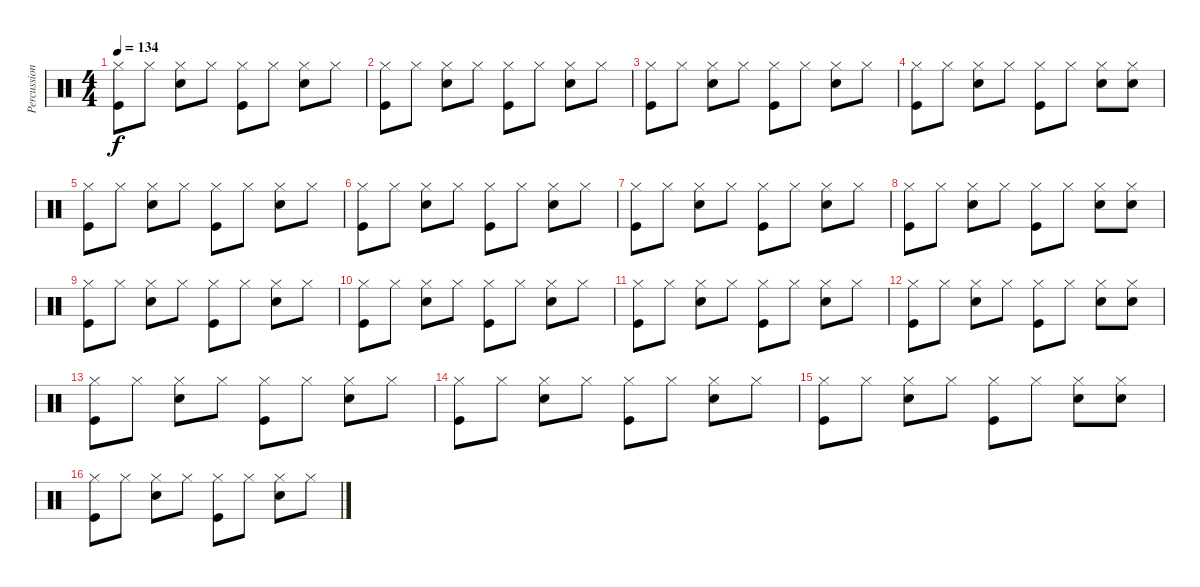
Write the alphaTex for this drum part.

\track ("Percussion" "Percussion") {instrument percussion}
\staff {score}
\articulation defaults
\ts (4 4)
\tempo 134
\clef neutral
\ks c
("Hi-Hat (closed)" "Kick (hit)").8{dy f} "Hi-Hat (closed)".8 ("Hi-Hat (closed)" "Snare (hit) 2").8 "Hi-Hat (closed)".8 ("Hi-Hat (closed)" "Kick (hit)").8 "Hi-Hat (closed)".8 ("Hi-Hat (closed)" "Snare (hit) 2").8 "Hi-Hat (closed)".8 |
("Hi-Hat (closed)" "Kick (hit)").8 "Hi-Hat (closed)".8 ("Hi-Hat (closed)" "Snare (hit) 2").8 "Hi-Hat (closed)".8 ("Hi-Hat (closed)" "Kick (hit)").8 "Hi-Hat (closed)".8 ("Hi-Hat (closed)" "Snare (hit) 2").8 "Hi-Hat (closed)".8 |
("Hi-Hat (closed)" "Kick (hit)").8 "Hi-Hat (closed)".8 ("Hi-Hat (closed)" "Snare (hit) 2").8 "Hi-Hat (closed)".8 ("Hi-Hat (closed)" "Kick (hit)").8 "Hi-Hat (closed)".8 ("Hi-Hat (closed)" "Snare (hit) 2").8 "Hi-Hat (closed)".8 |
("Hi-Hat (closed)" "Kick (hit)").8 "Hi-Hat (closed)".8 ("Hi-Hat (closed)" "Snare (hit) 2").8 "Hi-Hat (closed)".8 ("Hi-Hat (closed)" "Kick (hit)").8 "Hi-Hat (closed)".8 ("Hi-Hat (closed)" "Snare (hit) 2").8 ("Hi-Hat (closed)" "Snare (hit) 2").8 |
("Hi-Hat (closed)" "Kick (hit)").8 "Hi-Hat (closed)".8 ("Hi-Hat (closed)" "Snare (hit) 2").8 "Hi-Hat (closed)".8 ("Hi-Hat (closed)" "Kick (hit)").8 "Hi-Hat (closed)".8 ("Hi-Hat (closed)" "Snare (hit) 2").8 "Hi-Hat (closed)".8 |
("Hi-Hat (closed)" "Kick (hit)").8 "Hi-Hat (closed)".8 ("Hi-Hat (closed)" "Snare (hit) 2").8 "Hi-Hat (closed)".8 ("Hi-Hat (closed)" "Kick (hit)").8 "Hi-Hat (closed)".8 ("Hi-Hat (closed)" "Snare (hit) 2").8 "Hi-Hat (closed)".8 |
("Hi-Hat (closed)" "Kick (hit)").8 "Hi-Hat (closed)".8 ("Hi-Hat (closed)" "Snare (hit) 2").8 "Hi-Hat (closed)".8 ("Hi-Hat (closed)" "Kick (hit)").8 "Hi-Hat (closed)".8 ("Hi-Hat (closed)" "Snare (hit) 2").8 "Hi-Hat (closed)".8 |
("Hi-Hat (closed)" "Kick (hit)").8 "Hi-Hat (closed)".8 ("Hi-Hat (closed)" "Snare (hit) 2").8 "Hi-Hat (closed)".8 ("Hi-Hat (closed)" "Kick (hit)").8 "Hi-Hat (closed)".8 ("Hi-Hat (closed)" "Snare (hit) 2").8 ("Hi-Hat (closed)" "Snare (hit) 2").8 |
("Hi-Hat (closed)" "Kick (hit)").8 "Hi-Hat (closed)".8 ("Hi-Hat (closed)" "Snare (hit) 2").8 "Hi-Hat (closed)".8 ("Hi-Hat (closed)" "Kick (hit)").8 "Hi-Hat (closed)".8 ("Hi-Hat (closed)" "Snare (hit) 2").8 "Hi-Hat (closed)".8 |
("Hi-Hat (closed)" "Kick (hit)").8 "Hi-Hat (closed)".8 ("Hi-Hat (closed)" "Snare (hit) 2").8 "Hi-Hat (closed)".8 ("Hi-Hat (closed)" "Kick (hit)").8 "Hi-Hat (closed)".8 ("Hi-Hat (closed)" "Snare (hit) 2").8 "Hi-Hat (closed)".8 |
("Hi-Hat (closed)" "Kick (hit)").8 "Hi-Hat (closed)".8 ("Hi-Hat (closed)" "Snare (hit) 2").8 "Hi-Hat (closed)".8 ("Hi-Hat (closed)" "Kick (hit)").8 "Hi-Hat (closed)".8 ("Hi-Hat (closed)" "Snare (hit) 2").8 "Hi-Hat (closed)".8 |
("Hi-Hat (closed)" "Kick (hit)").8 "Hi-Hat (closed)".8 ("Hi-Hat (closed)" "Snare (hit) 2").8 "Hi-Hat (closed)".8 ("Hi-Hat (closed)" "Kick (hit)").8 "Hi-Hat (closed)".8 ("Hi-Hat (closed)" "Snare (hit) 2").8 ("Hi-Hat (closed)" "Snare (hit) 2").8 |
("Hi-Hat (closed)" "Kick (hit)").8 "Hi-Hat (closed)".8 ("Hi-Hat (closed)" "Snare (hit) 2").8 "Hi-Hat (closed)".8 ("Hi-Hat (closed)" "Kick (hit)").8 "Hi-Hat (closed)".8 ("Hi-Hat (closed)" "Snare (hit) 2").8 "Hi-Hat (closed)".8 |
("Hi-Hat (closed)" "Kick (hit)").8 "Hi-Hat (closed)".8 ("Hi-Hat (closed)" "Snare (hit) 2").8 "Hi-Hat (closed)".8 ("Hi-Hat (closed)" "Kick (hit)").8 "Hi-Hat (closed)".8 ("Hi-Hat (closed)" "Snare (hit) 2").8 "Hi-Hat (closed)".8 |
("Hi-Hat (closed)" "Kick (hit)").8 "Hi-Hat (closed)".8 ("Hi-Hat (closed)" "Snare (hit) 2").8 "Hi-Hat (closed)".8 ("Hi-Hat (closed)" "Kick (hit)").8 "Hi-Hat (closed)".8 ("Hi-Hat (closed)" "Snare (hit) 2").8 ("Hi-Hat (closed)" "Snare (hit) 2").8 |
("Hi-Hat (closed)" "Kick (hit)").8 "Hi-Hat (closed)".8 ("Hi-Hat (closed)" "Snare (hit) 2").8 "Hi-Hat (closed)".8 ("Hi-Hat (closed)" "Kick (hit)").8 "Hi-Hat (closed)".8 ("Hi-Hat (closed)" "Snare (hit) 2").8 "Hi-Hat (closed)".8
